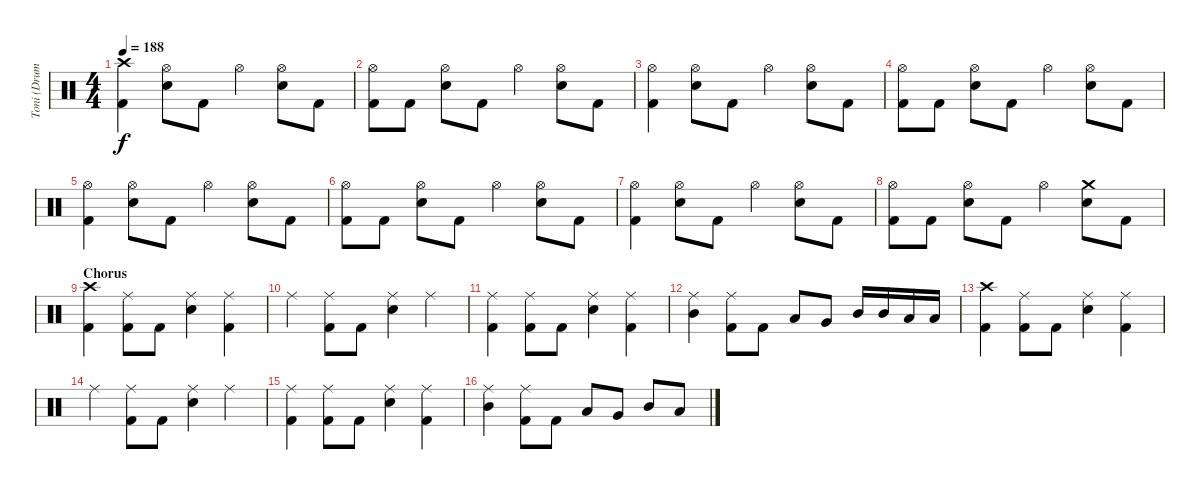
\track ("Toni (Drums)" "Toni (Drum") {instrument percussion}
\staff {score}
\articulation defaults
\ts (4 4)
\tempo 188
\clef neutral
\ks c
("Crash high (hit)" "Kick (hit) 2").4{dy f} ("Hi-Hat (open)" "Electric Snare (hit)").8 "Kick (hit) 2".8 "Hi-Hat (open)".4 ("Hi-Hat (open)" "Electric Snare (hit)").8 "Kick (hit) 2".8 |
("Hi-Hat (open)" "Kick (hit) 2").8 "Kick (hit) 2".8 ("Hi-Hat (open)" "Electric Snare (hit)").8 "Kick (hit) 2".8 "Hi-Hat (open)".4 ("Hi-Hat (open)" "Electric Snare (hit)").8 "Kick (hit) 2".8 |
("Hi-Hat (open)" "Kick (hit) 2").4 ("Hi-Hat (open)" "Electric Snare (hit)").8 "Kick (hit) 2".8 "Hi-Hat (open)".4 ("Hi-Hat (open)" "Electric Snare (hit)").8 "Kick (hit) 2".8 |
("Hi-Hat (open)" "Kick (hit) 2").8 "Kick (hit) 2".8 ("Hi-Hat (open)" "Electric Snare (hit)").8 "Kick (hit) 2".8 "Hi-Hat (open)".4 ("Hi-Hat (open)" "Electric Snare (hit)").8 "Kick (hit) 2".8 |
("Hi-Hat (open)" "Kick (hit) 2").4 ("Hi-Hat (open)" "Electric Snare (hit)").8 "Kick (hit) 2".8 "Hi-Hat (open)".4 ("Hi-Hat (open)" "Electric Snare (hit)").8 "Kick (hit) 2".8 |
("Hi-Hat (open)" "Kick (hit) 2").8 "Kick (hit) 2".8 ("Hi-Hat (open)" "Electric Snare (hit)").8 "Kick (hit) 2".8 "Hi-Hat (open)".4 ("Hi-Hat (open)" "Electric Snare (hit)").8 "Kick (hit) 2".8 |
("Hi-Hat (open)" "Kick (hit) 2").4 ("Hi-Hat (open)" "Electric Snare (hit)").8 "Kick (hit) 2".8 "Hi-Hat (open)".4 ("Hi-Hat (open)" "Electric Snare (hit)").8 "Kick (hit) 2".8 |
("Hi-Hat (open)" "Kick (hit) 2").8 "Kick (hit) 2".8 ("Hi-Hat (open)" "Electric Snare (hit)").8 "Kick (hit) 2".8 "Hi-Hat (open)".4 ("Crash medium (hit)" "Electric Snare (hit)").8 "Kick (hit) 2".8 |
\section ("" "Chorus")
("Crash high (hit)" "Kick (hit) 2").4 ("Ride (middle)" "Kick (hit) 2").8 "Kick (hit) 2".8 ("Ride (middle)" "Electric Snare (hit)").4 ("Ride (middle)" "Kick (hit) 2").4 |
"Ride (middle)".4 ("Ride (middle)" "Kick (hit) 2").8 "Kick (hit) 2".8 ("Ride (middle)" "Electric Snare (hit)").4 "Ride (middle)".4 |
("Ride (middle)" "Kick (hit) 2").4 ("Ride (middle)" "Kick (hit) 2").8 "Kick (hit) 2".8 ("Ride (middle)" "Electric Snare (hit)").4 ("Ride (middle)" "Kick (hit) 2").4 |
("Ride (middle)" "Mid Tom (hit)").4 ("Ride (middle)" "Kick (hit) 2").8 "Kick (hit) 2".8 "Low Tom (hit)".8 "Very Low Tom (hit)".8 "Mid Tom (hit)".16 "Mid Tom (hit)".16 "Low Tom (hit)".16 "Low Tom (hit)".16 |
("Crash high (hit)" "Kick (hit) 2").4 ("Ride (middle)" "Kick (hit) 2").8 "Kick (hit) 2".8 ("Ride (middle)" "Electric Snare (hit)").4 ("Ride (middle)" "Kick (hit) 2").4 |
"Ride (middle)".4 ("Ride (middle)" "Kick (hit) 2").8 "Kick (hit) 2".8 ("Ride (middle)" "Electric Snare (hit)").4 "Ride (middle)".4 |
("Ride (middle)" "Kick (hit) 2").4 ("Ride (middle)" "Kick (hit) 2").8 "Kick (hit) 2".8 ("Ride (middle)" "Electric Snare (hit)").4 ("Ride (middle)" "Kick (hit) 2").4 |
("Ride (middle)" "Mid Tom (hit)").4 ("Ride (middle)" "Kick (hit) 2").8 "Kick (hit) 2".8 "Low Tom (hit)".8 "Very Low Tom (hit)".8 "Mid Tom (hit)".8 "Low Tom (hit)".8
